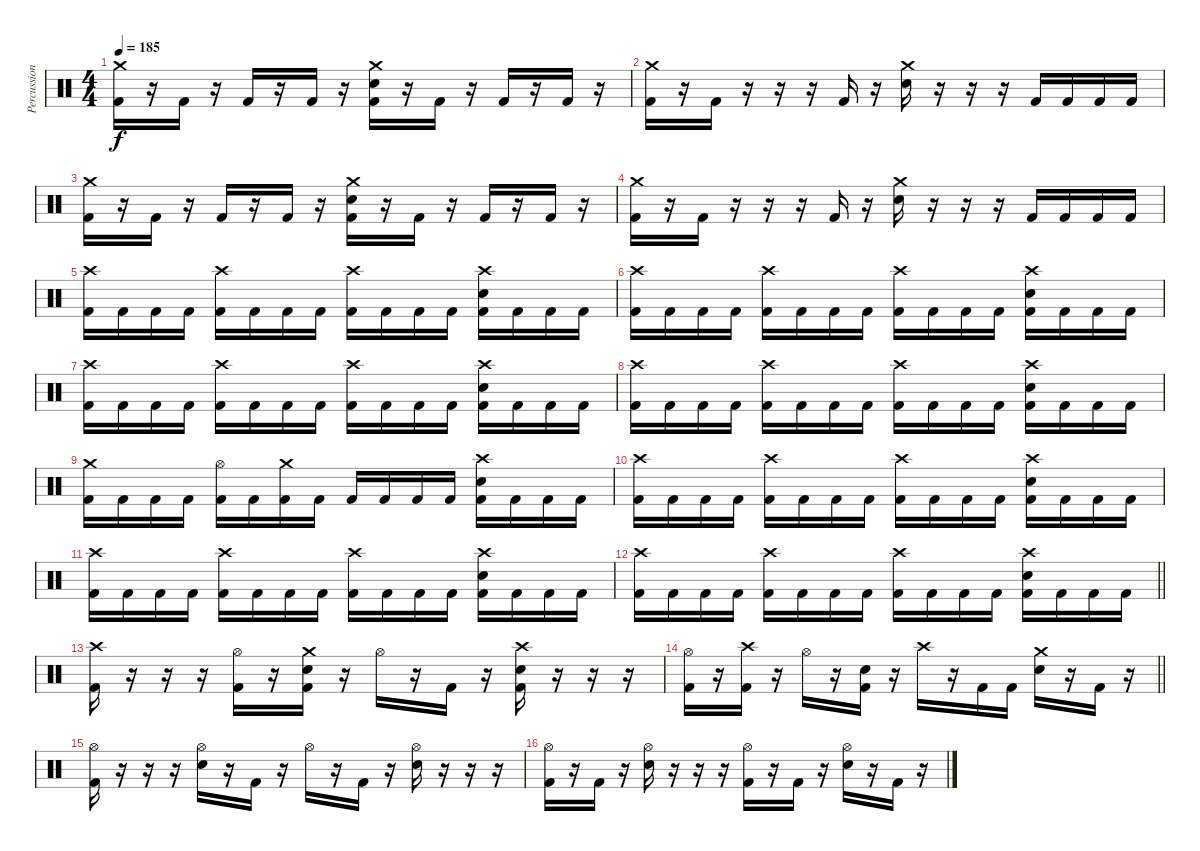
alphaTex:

\track ("Percussion" "Percussion") {instrument percussion}
\staff {score}
\articulation defaults
\ts (4 4)
\tempo 185
\clef neutral
\ks c
("Crash medium (hit)" "Kick (hit) 2").16{dy f} r.16 "Kick (hit) 2".16 r.16 "Kick (hit) 2".16 r.16 "Kick (hit) 2".16 r.16 ("Crash medium (hit)" "Electric Snare (hit)" "Kick (hit) 2").16 r.16 "Kick (hit) 2".16 r.16 "Kick (hit) 2".16 r.16 "Kick (hit) 2".16 r.16 |
("Crash medium (hit)" "Kick (hit) 2").16 r.16 "Kick (hit) 2".16 r.16 r.16 r.16 "Kick (hit) 2".16 r.16 ("Crash medium (hit)" "Electric Snare (hit)").16 r.16 r.16 r.16 "Kick (hit) 2".16 "Kick (hit) 2".16 "Kick (hit) 2".16 "Kick (hit) 2".16 |
("Crash medium (hit)" "Kick (hit) 2").16 r.16 "Kick (hit) 2".16 r.16 "Kick (hit) 2".16 r.16 "Kick (hit) 2".16 r.16 ("Crash medium (hit)" "Electric Snare (hit)" "Kick (hit) 2").16 r.16 "Kick (hit) 2".16 r.16 "Kick (hit) 2".16 r.16 "Kick (hit) 2".16 r.16 |
("Crash medium (hit)" "Kick (hit) 2").16 r.16 "Kick (hit) 2".16 r.16 r.16 r.16 "Kick (hit) 2".16 r.16 ("Crash medium (hit)" "Electric Snare (hit)").16 r.16 r.16 r.16 "Kick (hit) 2".16 "Kick (hit) 2".16 "Kick (hit) 2".16 "Kick (hit) 2".16 |
("Crash high (hit)" "Kick (hit) 2").16 "Kick (hit) 2".16 "Kick (hit) 2".16 "Kick (hit) 2".16 ("Crash high (hit)" "Kick (hit) 2").16 "Kick (hit) 2".16 "Kick (hit) 2".16 "Kick (hit) 2".16 ("Crash high (hit)" "Kick (hit) 2").16 "Kick (hit) 2".16 "Kick (hit) 2".16 "Kick (hit) 2".16 ("Crash high (hit)" "Electric Snare (hit)" "Kick (hit) 2").16 "Kick (hit) 2".16 "Kick (hit) 2".16 "Kick (hit) 2".16 |
("Crash high (hit)" "Kick (hit) 2").16 "Kick (hit) 2".16 "Kick (hit) 2".16 "Kick (hit) 2".16 ("Crash high (hit)" "Kick (hit) 2").16 "Kick (hit) 2".16 "Kick (hit) 2".16 "Kick (hit) 2".16 ("Crash high (hit)" "Kick (hit) 2").16 "Kick (hit) 2".16 "Kick (hit) 2".16 "Kick (hit) 2".16 ("Crash high (hit)" "Electric Snare (hit)" "Kick (hit) 2").16 "Kick (hit) 2".16 "Kick (hit) 2".16 "Kick (hit) 2".16 |
("Crash high (hit)" "Kick (hit) 2").16 "Kick (hit) 2".16 "Kick (hit) 2".16 "Kick (hit) 2".16 ("Crash high (hit)" "Kick (hit) 2").16 "Kick (hit) 2".16 "Kick (hit) 2".16 "Kick (hit) 2".16 ("Crash high (hit)" "Kick (hit) 2").16 "Kick (hit) 2".16 "Kick (hit) 2".16 "Kick (hit) 2".16 ("Crash high (hit)" "Electric Snare (hit)" "Kick (hit) 2").16 "Kick (hit) 2".16 "Kick (hit) 2".16 "Kick (hit) 2".16 |
("Crash high (hit)" "Kick (hit) 2").16 "Kick (hit) 2".16 "Kick (hit) 2".16 "Kick (hit) 2".16 ("Crash high (hit)" "Kick (hit) 2").16 "Kick (hit) 2".16 "Kick (hit) 2".16 "Kick (hit) 2".16 ("Crash high (hit)" "Kick (hit) 2").16 "Kick (hit) 2".16 "Kick (hit) 2".16 "Kick (hit) 2".16 ("Crash high (hit)" "Electric Snare (hit)" "Kick (hit) 2").16 "Kick (hit) 2".16 "Kick (hit) 2".16 "Kick (hit) 2".16 |
("Crash medium (hit)" "Kick (hit) 2").16 "Kick (hit) 2".16 "Kick (hit) 2".16 "Kick (hit) 2".16 ("Hi-Hat (open)" "Kick (hit) 2").16 "Kick (hit) 2".16 ("Crash medium (hit)" "Kick (hit) 2").16 "Kick (hit) 2".16 "Kick (hit) 2".16 "Kick (hit) 2".16 "Kick (hit) 2".16 "Kick (hit) 2".16 ("Crash high (hit)" "Electric Snare (hit)" "Kick (hit) 2").16 "Kick (hit) 2".16 "Kick (hit) 2".16 "Kick (hit) 2".16 |
("Crash high (hit)" "Kick (hit) 2").16 "Kick (hit) 2".16 "Kick (hit) 2".16 "Kick (hit) 2".16 ("Crash high (hit)" "Kick (hit) 2").16 "Kick (hit) 2".16 "Kick (hit) 2".16 "Kick (hit) 2".16 ("Crash high (hit)" "Kick (hit) 2").16 "Kick (hit) 2".16 "Kick (hit) 2".16 "Kick (hit) 2".16 ("Crash high (hit)" "Electric Snare (hit)" "Kick (hit) 2").16 "Kick (hit) 2".16 "Kick (hit) 2".16 "Kick (hit) 2".16 |
("Crash high (hit)" "Kick (hit) 2").16 "Kick (hit) 2".16 "Kick (hit) 2".16 "Kick (hit) 2".16 ("Crash high (hit)" "Kick (hit) 2").16 "Kick (hit) 2".16 "Kick (hit) 2".16 "Kick (hit) 2".16 ("Crash high (hit)" "Kick (hit) 2").16 "Kick (hit) 2".16 "Kick (hit) 2".16 "Kick (hit) 2".16 ("Crash high (hit)" "Electric Snare (hit)" "Kick (hit) 2").16 "Kick (hit) 2".16 "Kick (hit) 2".16 "Kick (hit) 2".16 |
\barLineRight lightlight
("Crash high (hit)" "Kick (hit) 2").16 "Kick (hit) 2".16 "Kick (hit) 2".16 "Kick (hit) 2".16 ("Crash high (hit)" "Kick (hit) 2").16 "Kick (hit) 2".16 "Kick (hit) 2".16 "Kick (hit) 2".16 ("Crash high (hit)" "Kick (hit) 2").16 "Kick (hit) 2".16 "Kick (hit) 2".16 "Kick (hit) 2".16 ("Crash high (hit)" "Electric Snare (hit)" "Kick (hit) 2").16 "Kick (hit) 2".16 "Kick (hit) 2".16 "Kick (hit) 2".16 |
("Crash high (hit)" "Kick (hit) 2").16 r.16 r.16 r.16 ("Hi-Hat (open)" "Kick (hit) 2").16 r.16 ("Crash medium (hit)" "Electric Snare (hit)" "Kick (hit) 2").16 r.16 "Hi-Hat (open)".16 r.16 "Kick (hit) 2".16 r.16 ("Crash high (hit)" "Electric Snare (hit)" "Kick (hit) 2").16 r.16 r.16 r.16 |
\barLineRight lightlight
("Hi-Hat (open)" "Kick (hit) 2").16 r.16 ("Crash high (hit)" "Kick (hit) 2").16 r.16 "Hi-Hat (open)".16 r.16 ("Electric Snare (hit)" "Kick (hit) 2").16 r.16 "Crash high (hit)".16 r.16 "Kick (hit) 2".16 "Kick (hit) 2".16 ("Crash medium (hit)" "Electric Snare (hit)").16 r.16 "Kick (hit) 2".16 r.16 |
("Hi-Hat (open)" "Kick (hit) 2").16 r.16 r.16 r.16 ("Hi-Hat (open)" "Electric Snare (hit)").16 r.16 "Kick (hit) 2".16 r.16 "Hi-Hat (open)".16 r.16 "Kick (hit) 2".16 r.16 ("Hi-Hat (open)" "Electric Snare (hit)").16 r.16 r.16 r.16 |
("Hi-Hat (open)" "Kick (hit) 2").16 r.16 "Kick (hit) 2".16 r.16 ("Hi-Hat (open)" "Electric Snare (hit)").16 r.16 r.16 r.16 ("Hi-Hat (open)" "Kick (hit) 2").16 r.16 "Kick (hit) 2".16 r.16 ("Hi-Hat (open)" "Electric Snare (hit)").16 r.16 "Kick (hit) 2".16 r.16
